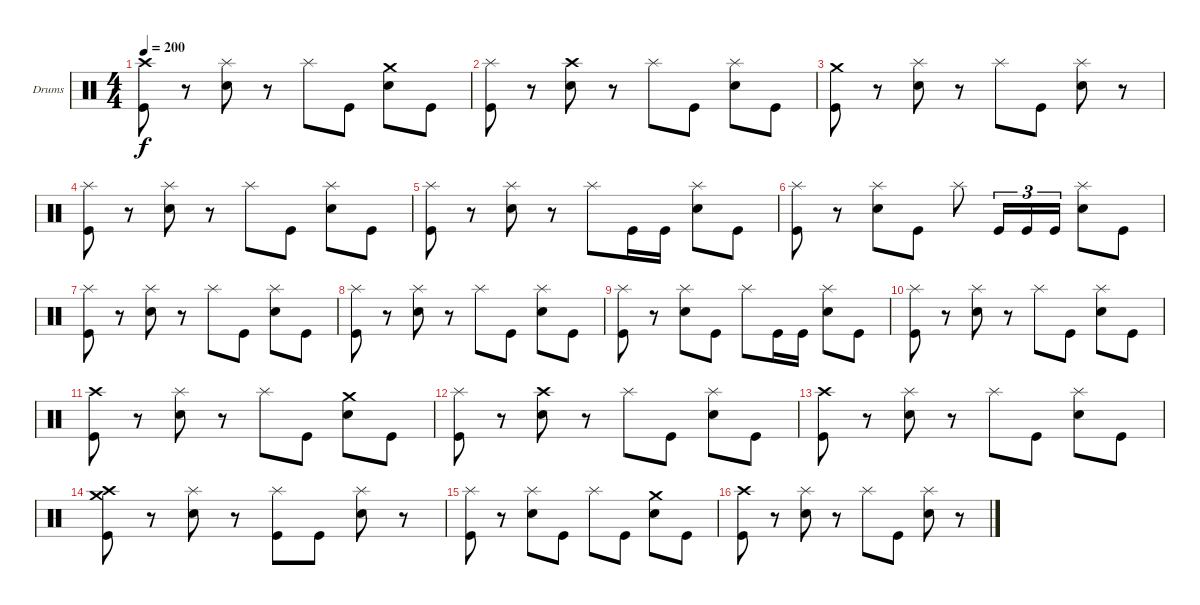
\bracketExtendMode groupsimilarinstruments
\firstSystemTrackNameOrientation horizontal
\otherSystemsTrackNameOrientation horizontal
\track ("Drumkit" "Drums") {instrument percussion}
\staff {score}
\articulation defaults
\ts (4 4)
\tempo 200
\clef neutral
\ks c
("Crash high (hit)" "Kick (hit)").8{dy f} r.8 ("Splash (hit)" "Snare (hit) 2").8 r.8 "Splash (hit)".8 "Kick (hit)".8 ("Crash medium (hit)" "Snare (hit) 2").8 "Kick (hit)".8 |
("Splash (hit)" "Kick (hit)").8 r.8 ("Crash high (hit)" "Snare (hit) 2").8 r.8 "Splash (hit)".8 "Kick (hit)".8 ("Splash (hit)" "Snare (hit) 2").8 "Kick (hit)".8 |
("Crash medium (hit)" "Kick (hit)").8 r.8 ("Splash (hit)" "Snare (hit) 2").8 r.8 "Splash (hit)".8 "Kick (hit)".8 ("Splash (hit)" "Snare (hit) 2").8 r.8 |
("Splash (hit)" "Kick (hit)").8 r.8 ("Splash (hit)" "Snare (hit) 2").8 r.8 "Splash (hit)".8 "Kick (hit)".8 ("Splash (hit)" "Snare (hit) 2").8 "Kick (hit)".8 |
("Splash (hit)" "Kick (hit)").8 r.8 ("Splash (hit)" "Snare (hit) 2").8 r.8 "Splash (hit)".8 "Kick (hit)".16 "Kick (hit)".16 ("Splash (hit)" "Snare (hit) 2").8 "Kick (hit)".8 |
("Splash (hit)" "Kick (hit)").8 r.8 ("Splash (hit)" "Snare (hit) 2").8 "Kick (hit)".8 "Splash (hit)".8 "Kick (hit)".16{tu (3 2)} "Kick (hit)".16{tu (3 2)} "Kick (hit)".16{tu (3 2)} ("Splash (hit)" "Snare (hit) 2").8 "Kick (hit)".8 |
("Splash (hit)" "Kick (hit)").8 r.8 ("Splash (hit)" "Snare (hit) 2").8 r.8 "Splash (hit)".8 "Kick (hit)".8 ("Splash (hit)" "Snare (hit) 2").8 "Kick (hit)".8 |
("Splash (hit)" "Kick (hit)").8 r.8 ("Splash (hit)" "Snare (hit) 2").8 r.8 "Splash (hit)".8 "Kick (hit)".8 ("Splash (hit)" "Snare (hit) 2").8 "Kick (hit)".8 |
("Splash (hit)" "Kick (hit)").8 r.8 ("Splash (hit)" "Snare (hit) 2").8 "Kick (hit)".8 "Splash (hit)".8 "Kick (hit)".16 "Kick (hit)".16 ("Splash (hit)" "Snare (hit) 2").8 "Kick (hit)".8 |
("Splash (hit)" "Kick (hit)").8 r.8 ("Splash (hit)" "Snare (hit) 2").8 r.8 "Splash (hit)".8 "Kick (hit)".8 ("Splash (hit)" "Snare (hit) 2").8 "Kick (hit)".8 |
("Crash high (hit)" "Kick (hit)").8 r.8 ("Splash (hit)" "Snare (hit) 2").8 r.8 "Splash (hit)".8 "Kick (hit)".8 ("Crash medium (hit)" "Snare (hit) 2").8 "Kick (hit)".8 |
("Splash (hit)" "Kick (hit)").8 r.8 ("Crash high (hit)" "Snare (hit) 2").8 r.8 "Splash (hit)".8 "Kick (hit)".8 ("Splash (hit)" "Snare (hit) 2").8 "Kick (hit)".8 |
("Crash high (hit)" "Kick (hit)").8 r.8 ("Splash (hit)" "Snare (hit) 2").8 r.8 "Splash (hit)".8 "Kick (hit)".8 ("Splash (hit)" "Snare (hit) 2").8 "Kick (hit)".8 |
("Crash medium (hit)" "Crash high (hit)" "Kick (hit)").8 r.8 ("Splash (hit)" "Snare (hit) 2").8 r.8 ("Splash (hit)" "Kick (hit)").8 "Kick (hit)".8 ("Splash (hit)" "Snare (hit) 2").8 r.8 |
("Splash (hit)" "Kick (hit)").8 r.8 ("Splash (hit)" "Snare (hit) 2").8 "Kick (hit)".8 "Splash (hit)".8 "Kick (hit)".8 ("Crash medium (hit)" "Snare (hit) 2").8 "Kick (hit)".8 |
("Crash high (hit)" "Kick (hit)").8 r.8 ("Splash (hit)" "Snare (hit) 2").8 r.8 "Splash (hit)".8 "Kick (hit)".8 ("Splash (hit)" "Snare (hit) 2").8 r.8
